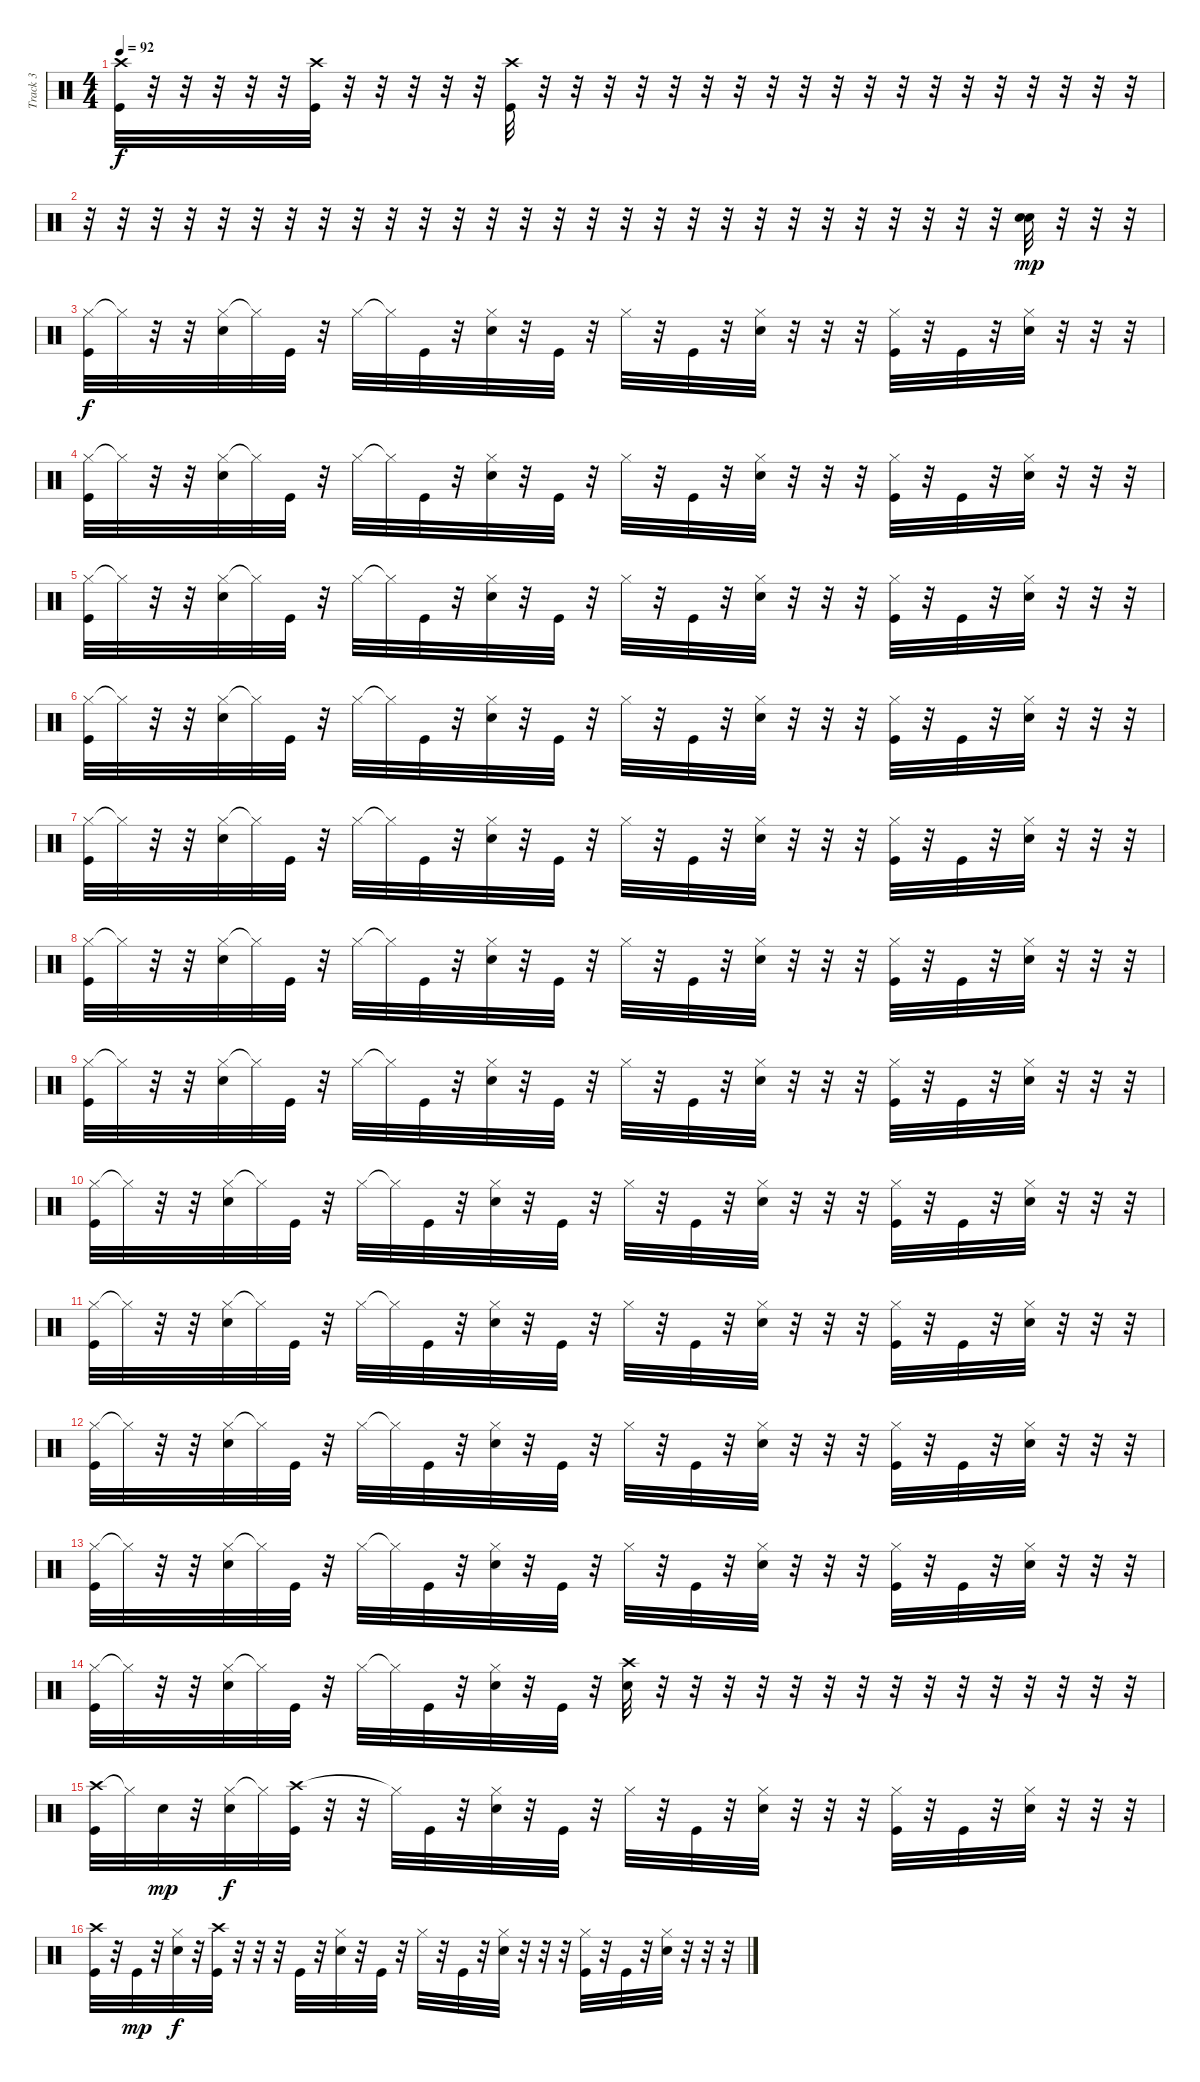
\track ("Track 3" "Track 3") {instrument percussion}
\staff {score}
\articulation defaults
\ts (4 4)
\tempo 92
\clef neutral
\ks c
("Crash high (hit)" "Kick (hit)").32{dy f} r.32 r.32 r.32 r.32 r.32 ("Crash high (hit)" "Kick (hit)").32 r.32 r.32 r.32 r.32 r.32 ("Crash high (hit)" "Kick (hit)").32 r.32 r.32 r.32 r.32 r.32 r.32 r.32 r.32 r.32 r.32 r.32 r.32 r.32 r.32 r.32 r.32 r.32 r.32 r.32 |
r.32 r.32 r.32 r.32 r.32 r.32 r.32 r.32 r.32 r.32 r.32 r.32 r.32 r.32 r.32 r.32 r.32 r.32 r.32 r.32 r.32 r.32 r.32 r.32 r.32 r.32 r.32 r.32 ("Snare (hit) 2" "Electric Snare (hit)").32{dy mp} r.32 r.32 r.32 |
("Hi-Hat (closed)" "Kick (hit)").32{dy f} "Hi-Hat (closed)"{t}.32 r.32 r.32 ("Hi-Hat (closed)" "Electric Snare (hit)").32 "Hi-Hat (closed)"{t}.32 "Kick (hit)".32 r.32 "Hi-Hat (closed)".32 "Hi-Hat (closed)"{t}.32 "Kick (hit)".32 r.32 ("Hi-Hat (closed)" "Electric Snare (hit)").32 r.32 "Kick (hit)".32 r.32 "Hi-Hat (closed)".32 r.32 "Kick (hit)".32 r.32 ("Hi-Hat (closed)" "Electric Snare (hit)").32 r.32 r.32 r.32 ("Hi-Hat (closed)" "Kick (hit)").32 r.32 "Kick (hit)".32 r.32 ("Hi-Hat (closed)" "Electric Snare (hit)").32 r.32 r.32 r.32 |
("Hi-Hat (closed)" "Kick (hit)").32 "Hi-Hat (closed)"{t}.32 r.32 r.32 ("Hi-Hat (closed)" "Electric Snare (hit)").32 "Hi-Hat (closed)"{t}.32 "Kick (hit)".32 r.32 "Hi-Hat (closed)".32 "Hi-Hat (closed)"{t}.32 "Kick (hit)".32 r.32 ("Hi-Hat (closed)" "Electric Snare (hit)").32 r.32 "Kick (hit)".32 r.32 "Hi-Hat (closed)".32 r.32 "Kick (hit)".32 r.32 ("Hi-Hat (closed)" "Electric Snare (hit)").32 r.32 r.32 r.32 ("Hi-Hat (closed)" "Kick (hit)").32 r.32 "Kick (hit)".32 r.32 ("Hi-Hat (closed)" "Electric Snare (hit)").32 r.32 r.32 r.32 |
("Hi-Hat (closed)" "Kick (hit)").32 "Hi-Hat (closed)"{t}.32 r.32 r.32 ("Hi-Hat (closed)" "Electric Snare (hit)").32 "Hi-Hat (closed)"{t}.32 "Kick (hit)".32 r.32 "Hi-Hat (closed)".32 "Hi-Hat (closed)"{t}.32 "Kick (hit)".32 r.32 ("Hi-Hat (closed)" "Electric Snare (hit)").32 r.32 "Kick (hit)".32 r.32 "Hi-Hat (closed)".32 r.32 "Kick (hit)".32 r.32 ("Hi-Hat (closed)" "Electric Snare (hit)").32 r.32 r.32 r.32 ("Hi-Hat (closed)" "Kick (hit)").32 r.32 "Kick (hit)".32 r.32 ("Hi-Hat (closed)" "Electric Snare (hit)").32 r.32 r.32 r.32 |
("Hi-Hat (closed)" "Kick (hit)").32 "Hi-Hat (closed)"{t}.32 r.32 r.32 ("Hi-Hat (closed)" "Electric Snare (hit)").32 "Hi-Hat (closed)"{t}.32 "Kick (hit)".32 r.32 "Hi-Hat (closed)".32 "Hi-Hat (closed)"{t}.32 "Kick (hit)".32 r.32 ("Hi-Hat (closed)" "Electric Snare (hit)").32 r.32 "Kick (hit)".32 r.32 "Hi-Hat (closed)".32 r.32 "Kick (hit)".32 r.32 ("Hi-Hat (closed)" "Electric Snare (hit)").32 r.32 r.32 r.32 ("Hi-Hat (closed)" "Kick (hit)").32 r.32 "Kick (hit)".32 r.32 ("Hi-Hat (closed)" "Electric Snare (hit)").32 r.32 r.32 r.32 |
("Hi-Hat (closed)" "Kick (hit)").32 "Hi-Hat (closed)"{t}.32 r.32 r.32 ("Hi-Hat (closed)" "Electric Snare (hit)").32 "Hi-Hat (closed)"{t}.32 "Kick (hit)".32 r.32 "Hi-Hat (closed)".32 "Hi-Hat (closed)"{t}.32 "Kick (hit)".32 r.32 ("Hi-Hat (closed)" "Electric Snare (hit)").32 r.32 "Kick (hit)".32 r.32 "Hi-Hat (closed)".32 r.32 "Kick (hit)".32 r.32 ("Hi-Hat (closed)" "Electric Snare (hit)").32 r.32 r.32 r.32 ("Hi-Hat (closed)" "Kick (hit)").32 r.32 "Kick (hit)".32 r.32 ("Hi-Hat (closed)" "Electric Snare (hit)").32 r.32 r.32 r.32 |
("Hi-Hat (closed)" "Kick (hit)").32 "Hi-Hat (closed)"{t}.32 r.32 r.32 ("Hi-Hat (closed)" "Electric Snare (hit)").32 "Hi-Hat (closed)"{t}.32 "Kick (hit)".32 r.32 "Hi-Hat (closed)".32 "Hi-Hat (closed)"{t}.32 "Kick (hit)".32 r.32 ("Hi-Hat (closed)" "Electric Snare (hit)").32 r.32 "Kick (hit)".32 r.32 "Hi-Hat (closed)".32 r.32 "Kick (hit)".32 r.32 ("Hi-Hat (closed)" "Electric Snare (hit)").32 r.32 r.32 r.32 ("Hi-Hat (closed)" "Kick (hit)").32 r.32 "Kick (hit)".32 r.32 ("Hi-Hat (closed)" "Electric Snare (hit)").32 r.32 r.32 r.32 |
("Hi-Hat (closed)" "Kick (hit)").32 "Hi-Hat (closed)"{t}.32 r.32 r.32 ("Hi-Hat (closed)" "Electric Snare (hit)").32 "Hi-Hat (closed)"{t}.32 "Kick (hit)".32 r.32 "Hi-Hat (closed)".32 "Hi-Hat (closed)"{t}.32 "Kick (hit)".32 r.32 ("Hi-Hat (closed)" "Electric Snare (hit)").32 r.32 "Kick (hit)".32 r.32 "Hi-Hat (closed)".32 r.32 "Kick (hit)".32 r.32 ("Hi-Hat (closed)" "Electric Snare (hit)").32 r.32 r.32 r.32 ("Hi-Hat (closed)" "Kick (hit)").32 r.32 "Kick (hit)".32 r.32 ("Hi-Hat (closed)" "Electric Snare (hit)").32 r.32 r.32 r.32 |
("Hi-Hat (closed)" "Kick (hit)").32 "Hi-Hat (closed)"{t}.32 r.32 r.32 ("Hi-Hat (closed)" "Electric Snare (hit)").32 "Hi-Hat (closed)"{t}.32 "Kick (hit)".32 r.32 "Hi-Hat (closed)".32 "Hi-Hat (closed)"{t}.32 "Kick (hit)".32 r.32 ("Hi-Hat (closed)" "Electric Snare (hit)").32 r.32 "Kick (hit)".32 r.32 "Hi-Hat (closed)".32 r.32 "Kick (hit)".32 r.32 ("Hi-Hat (closed)" "Electric Snare (hit)").32 r.32 r.32 r.32 ("Hi-Hat (closed)" "Kick (hit)").32 r.32 "Kick (hit)".32 r.32 ("Hi-Hat (closed)" "Electric Snare (hit)").32 r.32 r.32 r.32 |
("Hi-Hat (closed)" "Kick (hit)").32 "Hi-Hat (closed)"{t}.32 r.32 r.32 ("Hi-Hat (closed)" "Electric Snare (hit)").32 "Hi-Hat (closed)"{t}.32 "Kick (hit)".32 r.32 "Hi-Hat (closed)".32 "Hi-Hat (closed)"{t}.32 "Kick (hit)".32 r.32 ("Hi-Hat (closed)" "Electric Snare (hit)").32 r.32 "Kick (hit)".32 r.32 "Hi-Hat (closed)".32 r.32 "Kick (hit)".32 r.32 ("Hi-Hat (closed)" "Electric Snare (hit)").32 r.32 r.32 r.32 ("Hi-Hat (closed)" "Kick (hit)").32 r.32 "Kick (hit)".32 r.32 ("Hi-Hat (closed)" "Electric Snare (hit)").32 r.32 r.32 r.32 |
("Hi-Hat (closed)" "Kick (hit)").32 "Hi-Hat (closed)"{t}.32 r.32 r.32 ("Hi-Hat (closed)" "Electric Snare (hit)").32 "Hi-Hat (closed)"{t}.32 "Kick (hit)".32 r.32 "Hi-Hat (closed)".32 "Hi-Hat (closed)"{t}.32 "Kick (hit)".32 r.32 ("Hi-Hat (closed)" "Electric Snare (hit)").32 r.32 "Kick (hit)".32 r.32 "Hi-Hat (closed)".32 r.32 "Kick (hit)".32 r.32 ("Hi-Hat (closed)" "Electric Snare (hit)").32 r.32 r.32 r.32 ("Hi-Hat (closed)" "Kick (hit)").32 r.32 "Kick (hit)".32 r.32 ("Hi-Hat (closed)" "Electric Snare (hit)").32 r.32 r.32 r.32 |
("Hi-Hat (closed)" "Kick (hit)").32 "Hi-Hat (closed)"{t}.32 r.32 r.32 ("Hi-Hat (closed)" "Electric Snare (hit)").32 "Hi-Hat (closed)"{t}.32 "Kick (hit)".32 r.32 "Hi-Hat (closed)".32 "Hi-Hat (closed)"{t}.32 "Kick (hit)".32 r.32 ("Hi-Hat (closed)" "Electric Snare (hit)").32 r.32 "Kick (hit)".32 r.32 "Hi-Hat (closed)".32 r.32 "Kick (hit)".32 r.32 ("Hi-Hat (closed)" "Electric Snare (hit)").32 r.32 r.32 r.32 ("Hi-Hat (closed)" "Kick (hit)").32 r.32 "Kick (hit)".32 r.32 ("Hi-Hat (closed)" "Electric Snare (hit)").32 r.32 r.32 r.32 |
("Hi-Hat (closed)" "Kick (hit)").32 "Hi-Hat (closed)"{t}.32 r.32 r.32 ("Hi-Hat (closed)" "Electric Snare (hit)").32 "Hi-Hat (closed)"{t}.32 "Kick (hit)".32 r.32 "Hi-Hat (closed)".32 "Hi-Hat (closed)"{t}.32 "Kick (hit)".32 r.32 ("Hi-Hat (closed)" "Electric Snare (hit)").32 r.32 "Kick (hit)".32 r.32 ("Crash high (hit)" "Electric Snare (hit)").32 r.32 r.32 r.32 r.32 r.32 r.32 r.32 r.32 r.32 r.32 r.32 r.32 r.32 r.32 r.32 |
("Crash high (hit)" "Kick (hit)").32 "Hi-Hat (closed)"{t}.32 "Metronome (bell)".32{dy mp} r.32 ("Hi-Hat (closed)" "Electric Snare (hit)").32{dy f} "Hi-Hat (closed)"{t}.32 ("Crash high (hit)" "Kick (hit)").32 r.32 r.32 "Hi-Hat (closed)"{t}.32 "Kick (hit)".32 r.32 ("Hi-Hat (closed)" "Electric Snare (hit)").32 r.32 "Kick (hit)".32 r.32 "Hi-Hat (closed)".32 r.32 "Kick (hit)".32 r.32 ("Hi-Hat (closed)" "Electric Snare (hit)").32 r.32 r.32 r.32 ("Hi-Hat (closed)" "Kick (hit)").32 r.32 "Kick (hit)".32 r.32 ("Hi-Hat (closed)" "Electric Snare (hit)").32 r.32 r.32 r.32 |
("Crash high (hit)" "Kick (hit)").32 r.32 "Kick (hit)".32{dy mp} r.32 ("Hi-Hat (closed)" "Electric Snare (hit)").32{dy f} r.32 ("Crash high (hit)" "Kick (hit)").32 r.32 r.32 r.32 "Kick (hit)".32 r.32 ("Hi-Hat (closed)" "Electric Snare (hit)").32 r.32 "Kick (hit)".32 r.32 "Hi-Hat (closed)".32 r.32 "Kick (hit)".32 r.32 ("Hi-Hat (closed)" "Electric Snare (hit)").32 r.32 r.32 r.32 ("Hi-Hat (closed)" "Kick (hit)").32 r.32 "Kick (hit)".32 r.32 ("Hi-Hat (closed)" "Electric Snare (hit)").32 r.32 r.32 r.32
